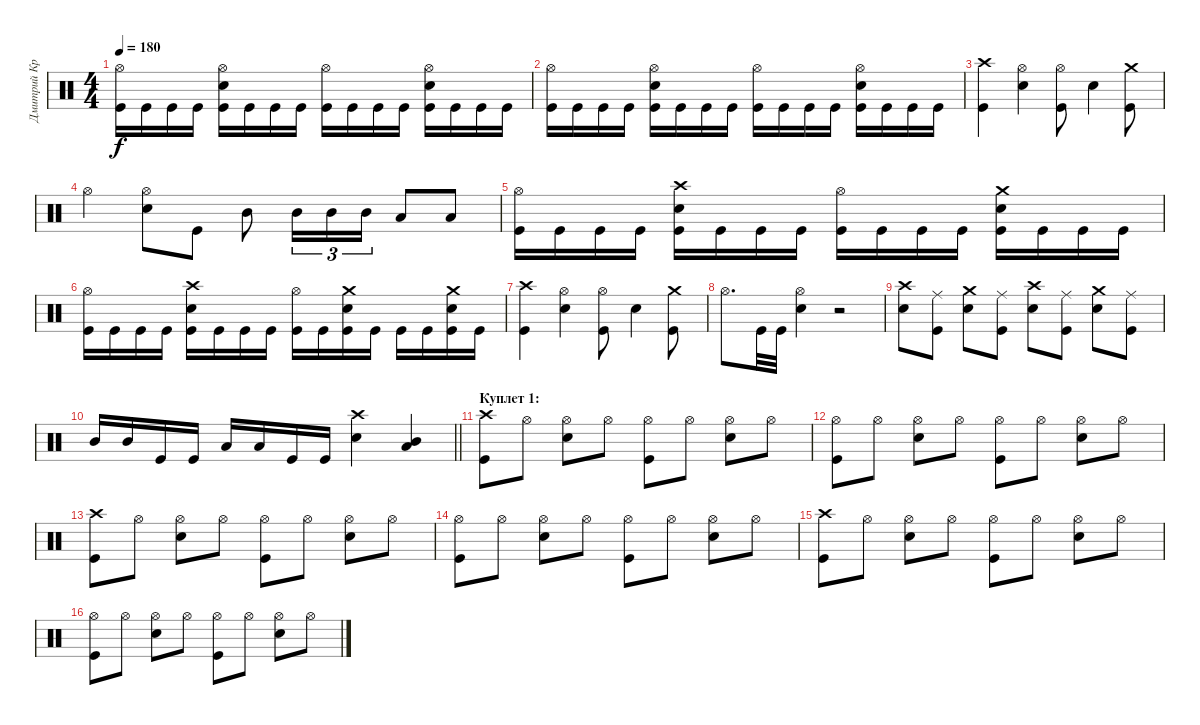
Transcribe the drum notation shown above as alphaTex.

\track ("Дмитрий Кривенков" "Дмитрий Кр") {instrument percussion}
\staff {score}
\articulation defaults
\ts (4 4)
\tempo 180
\clef neutral
\ks c
("Hi-Hat (open)" "Kick (hit)").16{dy f} "Kick (hit)".16 "Kick (hit)".16 "Kick (hit)".16 ("Hi-Hat (open)" "Electric Snare (hit)" "Kick (hit)").16 "Kick (hit)".16 "Kick (hit)".16 "Kick (hit)".16 ("Hi-Hat (open)" "Kick (hit)").16 "Kick (hit)".16 "Kick (hit)".16 "Kick (hit)".16 ("Hi-Hat (open)" "Electric Snare (hit)" "Kick (hit)").16 "Kick (hit)".16 "Kick (hit)".16 "Kick (hit)".16 |
("Hi-Hat (open)" "Kick (hit)").16 "Kick (hit)".16 "Kick (hit)".16 "Kick (hit)".16 ("Hi-Hat (open)" "Electric Snare (hit)" "Kick (hit)").16 "Kick (hit)".16 "Kick (hit)".16 "Kick (hit)".16 ("Hi-Hat (open)" "Kick (hit)").16 "Kick (hit)".16 "Kick (hit)".16 "Kick (hit)".16 ("Hi-Hat (open)" "Electric Snare (hit)" "Kick (hit)").16 "Kick (hit)".16 "Kick (hit)".16 "Kick (hit)".16 |
("Crash high (hit)" "Kick (hit)").4 ("Hi-Hat (open)" "Electric Snare (hit)").4 ("Hi-Hat (open)" "Kick (hit)").8 "Electric Snare (hit)".4 ("Crash medium (hit)" "Kick (hit)").8 |
"Hi-Hat (open)".4 ("Hi-Hat (open)" "Electric Snare (hit)").8 "Kick (hit)".8 "Mid Tom (hit)".8 "Mid Tom (hit)".16{tu (3 2)} "Mid Tom (hit)".16{tu (3 2)} "Mid Tom (hit)".16{tu (3 2)} "Low Floor Tom (hit)".8 "Low Floor Tom (hit)".8 |
("Hi-Hat (open)" "Kick (hit)").16 "Kick (hit)".16 "Kick (hit)".16 "Kick (hit)".16 ("Crash high (hit)" "Electric Snare (hit)" "Kick (hit)").16 "Kick (hit)".16 "Kick (hit)".16 "Kick (hit)".16 ("Hi-Hat (open)" "Kick (hit)").16 "Kick (hit)".16 "Kick (hit)".16 "Kick (hit)".16 ("Crash medium (hit)" "Electric Snare (hit)" "Kick (hit)").16 "Kick (hit)".16 "Kick (hit)".16 "Kick (hit)".16 |
("Hi-Hat (open)" "Kick (hit)").16 "Kick (hit)".16 "Kick (hit)".16 "Kick (hit)".16 ("Crash high (hit)" "Electric Snare (hit)" "Kick (hit)").16 "Kick (hit)".16 "Kick (hit)".16 "Kick (hit)".16 ("Hi-Hat (open)" "Kick (hit)").16 "Kick (hit)".16 ("Crash medium (hit)" "Electric Snare (hit)" "Kick (hit)").16 "Kick (hit)".16 "Kick (hit)".16 "Kick (hit)".16 ("Crash medium (hit)" "Electric Snare (hit)" "Kick (hit)").16 "Kick (hit)".16 |
("Crash high (hit)" "Kick (hit)").4 ("Hi-Hat (open)" "Electric Snare (hit)").4 ("Hi-Hat (open)" "Kick (hit)").8 "Electric Snare (hit)".4 ("Crash medium (hit)" "Kick (hit)").8 |
"Hi-Hat (open)".8{d} "Kick (hit)".32 "Kick (hit)".32 ("Hi-Hat (open)" "Electric Snare (hit)").4 r.2 |
("Crash high (hit)" "Electric Snare (hit)").8 ("Ride (middle)" "Kick (hit)").8 ("Crash medium (hit)" "Electric Snare (hit)").8 ("Ride (middle)" "Kick (hit)").8 ("Crash high (hit)" "Electric Snare (hit)").8 ("Ride (middle)" "Kick (hit)").8 ("Crash medium (hit)" "Electric Snare (hit)").8 ("Ride (middle)" "Kick (hit)").8 |
\barLineRight lightlight "Mid Tom (hit)".16 "Mid Tom (hit)".16 "Kick (hit)".16 "Kick (hit)".16 "Low Floor Tom (hit)".16 "Low Floor Tom (hit)".16 "Kick (hit)".16 "Kick (hit)".16
("Crash high (hit)" "Electric Snare (hit)").4 ("Mid Tom (hit)" "Low Floor Tom (hit)").4 |
\section ("" "Куплет 1:")
("Crash high (hit)" "Kick (hit)").8 "Hi-Hat (open)".8 ("Hi-Hat (open)" "Electric Snare (hit)").8 "Hi-Hat (open)".8 ("Hi-Hat (open)" "Kick (hit)").8 "Hi-Hat (open)".8 ("Hi-Hat (open)" "Electric Snare (hit)").8 "Hi-Hat (open)".8 |
("Hi-Hat (open)" "Kick (hit)").8 "Hi-Hat (open)".8 ("Hi-Hat (open)" "Electric Snare (hit)").8 "Hi-Hat (open)".8 ("Hi-Hat (open)" "Kick (hit)").8 "Hi-Hat (open)".8 ("Hi-Hat (open)" "Electric Snare (hit)").8 "Hi-Hat (open)".8 |
("Crash high (hit)" "Kick (hit)").8 "Hi-Hat (open)".8 ("Hi-Hat (open)" "Electric Snare (hit)").8 "Hi-Hat (open)".8 ("Hi-Hat (open)" "Kick (hit)").8 "Hi-Hat (open)".8 ("Hi-Hat (open)" "Electric Snare (hit)").8 "Hi-Hat (open)".8 |
("Hi-Hat (open)" "Kick (hit)").8 "Hi-Hat (open)".8 ("Hi-Hat (open)" "Electric Snare (hit)").8 "Hi-Hat (open)".8 ("Hi-Hat (open)" "Kick (hit)").8 "Hi-Hat (open)".8 ("Hi-Hat (open)" "Electric Snare (hit)").8 "Hi-Hat (open)".8 |
("Crash high (hit)" "Kick (hit)").8 "Hi-Hat (open)".8 ("Hi-Hat (open)" "Electric Snare (hit)").8 "Hi-Hat (open)".8 ("Hi-Hat (open)" "Kick (hit)").8 "Hi-Hat (open)".8 ("Hi-Hat (open)" "Electric Snare (hit)").8 "Hi-Hat (open)".8 |
("Hi-Hat (open)" "Kick (hit)").8 "Hi-Hat (open)".8 ("Hi-Hat (open)" "Electric Snare (hit)").8 "Hi-Hat (open)".8 ("Hi-Hat (open)" "Kick (hit)").8 "Hi-Hat (open)".8 ("Hi-Hat (open)" "Electric Snare (hit)").8 "Hi-Hat (open)".8
